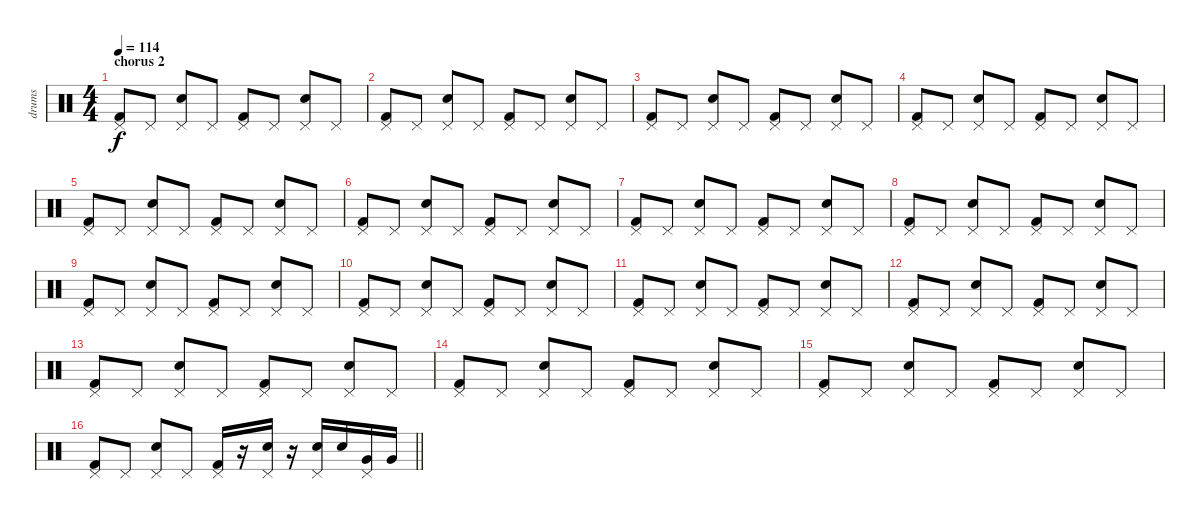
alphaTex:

\track ("drums" "drums") {instrument percussion}
\staff {score}
\articulation defaults
\ts (4 4)
\section ("" "chorus 2")
\tempo 114
\clef neutral
\ks c
("Kick (hit) 2" "Pedal Hi-Hat (hit)").8{dy f volume 14} "Pedal Hi-Hat (hit)".8 ("Electric Snare (hit)" "Pedal Hi-Hat (hit)").8 "Pedal Hi-Hat (hit)".8 ("Kick (hit) 2" "Pedal Hi-Hat (hit)").8 "Pedal Hi-Hat (hit)".8 ("Electric Snare (hit)" "Pedal Hi-Hat (hit)").8 "Pedal Hi-Hat (hit)".8 |
("Kick (hit) 2" "Pedal Hi-Hat (hit)").8 "Pedal Hi-Hat (hit)".8 ("Electric Snare (hit)" "Pedal Hi-Hat (hit)").8 "Pedal Hi-Hat (hit)".8 ("Kick (hit) 2" "Pedal Hi-Hat (hit)").8 "Pedal Hi-Hat (hit)".8 ("Electric Snare (hit)" "Pedal Hi-Hat (hit)").8 "Pedal Hi-Hat (hit)".8 |
("Kick (hit) 2" "Pedal Hi-Hat (hit)").8 "Pedal Hi-Hat (hit)".8 ("Electric Snare (hit)" "Pedal Hi-Hat (hit)").8 "Pedal Hi-Hat (hit)".8 ("Kick (hit) 2" "Pedal Hi-Hat (hit)").8 "Pedal Hi-Hat (hit)".8 ("Electric Snare (hit)" "Pedal Hi-Hat (hit)").8 "Pedal Hi-Hat (hit)".8 |
("Kick (hit) 2" "Pedal Hi-Hat (hit)").8 "Pedal Hi-Hat (hit)".8 ("Electric Snare (hit)" "Pedal Hi-Hat (hit)").8 "Pedal Hi-Hat (hit)".8 ("Kick (hit) 2" "Pedal Hi-Hat (hit)").8 "Pedal Hi-Hat (hit)".8 ("Electric Snare (hit)" "Pedal Hi-Hat (hit)").8 "Pedal Hi-Hat (hit)".8 |
("Kick (hit) 2" "Pedal Hi-Hat (hit)").8 "Pedal Hi-Hat (hit)".8 ("Electric Snare (hit)" "Pedal Hi-Hat (hit)").8 "Pedal Hi-Hat (hit)".8 ("Kick (hit) 2" "Pedal Hi-Hat (hit)").8 "Pedal Hi-Hat (hit)".8 ("Electric Snare (hit)" "Pedal Hi-Hat (hit)").8 "Pedal Hi-Hat (hit)".8 |
("Kick (hit) 2" "Pedal Hi-Hat (hit)").8 "Pedal Hi-Hat (hit)".8 ("Electric Snare (hit)" "Pedal Hi-Hat (hit)").8 "Pedal Hi-Hat (hit)".8 ("Kick (hit) 2" "Pedal Hi-Hat (hit)").8 "Pedal Hi-Hat (hit)".8 ("Electric Snare (hit)" "Pedal Hi-Hat (hit)").8 "Pedal Hi-Hat (hit)".8 |
("Kick (hit) 2" "Pedal Hi-Hat (hit)").8 "Pedal Hi-Hat (hit)".8 ("Electric Snare (hit)" "Pedal Hi-Hat (hit)").8 "Pedal Hi-Hat (hit)".8 ("Kick (hit) 2" "Pedal Hi-Hat (hit)").8 "Pedal Hi-Hat (hit)".8 ("Electric Snare (hit)" "Pedal Hi-Hat (hit)").8 "Pedal Hi-Hat (hit)".8 |
("Kick (hit) 2" "Pedal Hi-Hat (hit)").8 "Pedal Hi-Hat (hit)".8 ("Electric Snare (hit)" "Pedal Hi-Hat (hit)").8 "Pedal Hi-Hat (hit)".8 ("Kick (hit) 2" "Pedal Hi-Hat (hit)").8 "Pedal Hi-Hat (hit)".8 ("Electric Snare (hit)" "Pedal Hi-Hat (hit)").8 "Pedal Hi-Hat (hit)".8 |
("Kick (hit) 2" "Pedal Hi-Hat (hit)").8 "Pedal Hi-Hat (hit)".8 ("Electric Snare (hit)" "Pedal Hi-Hat (hit)").8 "Pedal Hi-Hat (hit)".8 ("Kick (hit) 2" "Pedal Hi-Hat (hit)").8 "Pedal Hi-Hat (hit)".8 ("Electric Snare (hit)" "Pedal Hi-Hat (hit)").8 "Pedal Hi-Hat (hit)".8 |
("Kick (hit) 2" "Pedal Hi-Hat (hit)").8 "Pedal Hi-Hat (hit)".8 ("Electric Snare (hit)" "Pedal Hi-Hat (hit)").8 "Pedal Hi-Hat (hit)".8 ("Kick (hit) 2" "Pedal Hi-Hat (hit)").8 "Pedal Hi-Hat (hit)".8 ("Electric Snare (hit)" "Pedal Hi-Hat (hit)").8 "Pedal Hi-Hat (hit)".8 |
("Kick (hit) 2" "Pedal Hi-Hat (hit)").8 "Pedal Hi-Hat (hit)".8 ("Electric Snare (hit)" "Pedal Hi-Hat (hit)").8 "Pedal Hi-Hat (hit)".8 ("Kick (hit) 2" "Pedal Hi-Hat (hit)").8 "Pedal Hi-Hat (hit)".8 ("Electric Snare (hit)" "Pedal Hi-Hat (hit)").8 "Pedal Hi-Hat (hit)".8 |
("Kick (hit) 2" "Pedal Hi-Hat (hit)").8 "Pedal Hi-Hat (hit)".8 ("Electric Snare (hit)" "Pedal Hi-Hat (hit)").8 "Pedal Hi-Hat (hit)".8 ("Kick (hit) 2" "Pedal Hi-Hat (hit)").8 "Pedal Hi-Hat (hit)".8 ("Electric Snare (hit)" "Pedal Hi-Hat (hit)").8 "Pedal Hi-Hat (hit)".8 |
("Kick (hit) 2" "Pedal Hi-Hat (hit)").8 "Pedal Hi-Hat (hit)".8 ("Electric Snare (hit)" "Pedal Hi-Hat (hit)").8 "Pedal Hi-Hat (hit)".8 ("Kick (hit) 2" "Pedal Hi-Hat (hit)").8 "Pedal Hi-Hat (hit)".8 ("Electric Snare (hit)" "Pedal Hi-Hat (hit)").8 "Pedal Hi-Hat (hit)".8 |
("Kick (hit) 2" "Pedal Hi-Hat (hit)").8 "Pedal Hi-Hat (hit)".8 ("Electric Snare (hit)" "Pedal Hi-Hat (hit)").8 "Pedal Hi-Hat (hit)".8 ("Kick (hit) 2" "Pedal Hi-Hat (hit)").8 "Pedal Hi-Hat (hit)".8 ("Electric Snare (hit)" "Pedal Hi-Hat (hit)").8 "Pedal Hi-Hat (hit)".8 |
("Kick (hit) 2" "Pedal Hi-Hat (hit)").8 "Pedal Hi-Hat (hit)".8 ("Electric Snare (hit)" "Pedal Hi-Hat (hit)").8 "Pedal Hi-Hat (hit)".8 ("Kick (hit) 2" "Pedal Hi-Hat (hit)").8 "Pedal Hi-Hat (hit)".8 ("Electric Snare (hit)" "Pedal Hi-Hat (hit)").8 "Pedal Hi-Hat (hit)".8 |
\barLineRight lightlight
("Kick (hit) 2" "Pedal Hi-Hat (hit)").8 "Pedal Hi-Hat (hit)".8 ("Electric Snare (hit)" "Pedal Hi-Hat (hit)").8 "Pedal Hi-Hat (hit)".8 ("Kick (hit) 2" "Pedal Hi-Hat (hit)").16 r.16 ("Electric Snare (hit)" "Pedal Hi-Hat (hit)").16 r.16 ("Electric Snare (hit)" "Pedal Hi-Hat (hit)").16 "Electric Snare (hit)".16 ("Very Low Tom (hit)" "Pedal Hi-Hat (hit)").16 "Very Low Tom (hit)".16
